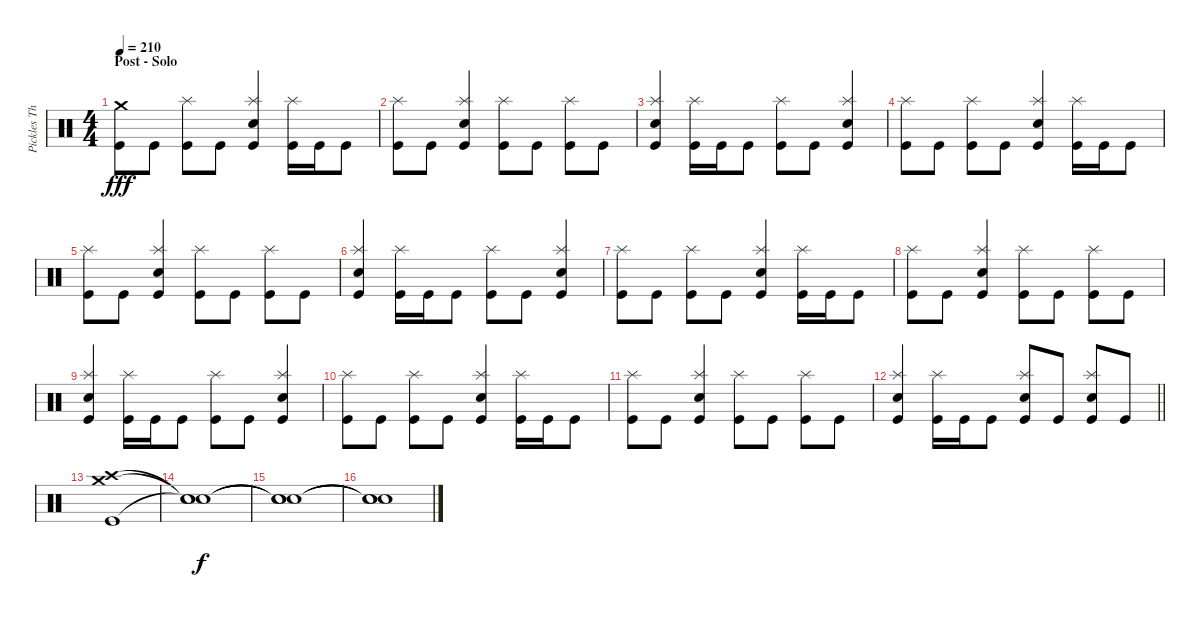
\track ("Pickles The Drummer (Drums)" "Pickles Th") {instrument percussion}
\staff {score}
\articulation defaults
\ts (4 4)
\section ("" "Post - Solo")
\tempo 210
\clef neutral
\ks c
("Crash medium (hit)" "Kick (hit)").8{dy fff} "Kick (hit)".8 ("Splash (hit)" "Kick (hit)").8 "Kick (hit)".8 ("Splash (hit)" "Snare (hit) 2" "Kick (hit)").4 ("Splash (hit)" "Kick (hit)").16 "Kick (hit)".16 "Kick (hit)".8 |
("Splash (hit)" "Kick (hit)").8 "Kick (hit)".8 ("Splash (hit)" "Snare (hit) 2" "Kick (hit)").4 ("Splash (hit)" "Kick (hit)").8 "Kick (hit)".8 ("Splash (hit)" "Kick (hit)").8 "Kick (hit)".8 |
("Splash (hit)" "Snare (hit) 2" "Kick (hit)").4 ("Splash (hit)" "Kick (hit)").16 "Kick (hit)".16 "Kick (hit)".8 ("Splash (hit)" "Kick (hit)").8 "Kick (hit)".8 ("Splash (hit)" "Snare (hit) 2" "Kick (hit)").4 |
("Splash (hit)" "Kick (hit)").8 "Kick (hit)".8 ("Splash (hit)" "Kick (hit)").8 "Kick (hit)".8 ("Splash (hit)" "Snare (hit) 2" "Kick (hit)").4 ("Splash (hit)" "Kick (hit)").16 "Kick (hit)".16 "Kick (hit)".8 |
("Splash (hit)" "Kick (hit)").8 "Kick (hit)".8 ("Splash (hit)" "Snare (hit) 2" "Kick (hit)").4 ("Splash (hit)" "Kick (hit)").8 "Kick (hit)".8 ("Splash (hit)" "Kick (hit)").8 "Kick (hit)".8 |
("Splash (hit)" "Snare (hit) 2" "Kick (hit)").4 ("Splash (hit)" "Kick (hit)").16 "Kick (hit)".16 "Kick (hit)".8 ("Splash (hit)" "Kick (hit)").8 "Kick (hit)".8 ("Splash (hit)" "Snare (hit) 2" "Kick (hit)").4 |
("Splash (hit)" "Kick (hit)").8 "Kick (hit)".8 ("Splash (hit)" "Kick (hit)").8 "Kick (hit)".8 ("Splash (hit)" "Snare (hit) 2" "Kick (hit)").4 ("Splash (hit)" "Kick (hit)").16 "Kick (hit)".16 "Kick (hit)".8 |
("Splash (hit)" "Kick (hit)").8 "Kick (hit)".8 ("Splash (hit)" "Snare (hit) 2" "Kick (hit)").4 ("Splash (hit)" "Kick (hit)").8 "Kick (hit)".8 ("Splash (hit)" "Kick (hit)").8 "Kick (hit)".8 |
("Splash (hit)" "Snare (hit) 2" "Kick (hit)").4 ("Splash (hit)" "Kick (hit)").16 "Kick (hit)".16 "Kick (hit)".8 ("Splash (hit)" "Kick (hit)").8 "Kick (hit)".8 ("Splash (hit)" "Snare (hit) 2" "Kick (hit)").4 |
("Splash (hit)" "Kick (hit)").8 "Kick (hit)".8 ("Splash (hit)" "Kick (hit)").8 "Kick (hit)".8 ("Splash (hit)" "Snare (hit) 2" "Kick (hit)").4 ("Splash (hit)" "Kick (hit)").16 "Kick (hit)".16 "Kick (hit)".8 |
("Splash (hit)" "Kick (hit)").8 "Kick (hit)".8 ("Splash (hit)" "Snare (hit) 2" "Kick (hit)").4 ("Splash (hit)" "Kick (hit)").8 "Kick (hit)".8 ("Splash (hit)" "Kick (hit)").8 "Kick (hit)".8 |
\barLineRight lightlight
("Splash (hit)" "Snare (hit) 2" "Kick (hit)").4 ("Splash (hit)" "Kick (hit)").16 "Kick (hit)".16 "Kick (hit)".8 ("Splash (hit)" "Snare (hit) 2" "Kick (hit)").8 "Kick (hit)".8 ("Splash (hit)" "Snare (hit) 2" "Kick (hit)").8 "Kick (hit)".8 |
("Crash high (hit)" "Crash medium (hit)" "Kick (hit)").1 |
("Snare (hit)"{t} "Snare (hit)"{t} "Snare (hit)"{t}).1{dy f} |
("Snare (hit)"{t} "Snare (hit)"{t} "Snare (hit)"{t}).1 |
("Snare (hit)"{t} "Snare (hit)"{t} "Snare (hit)"{t}).1
